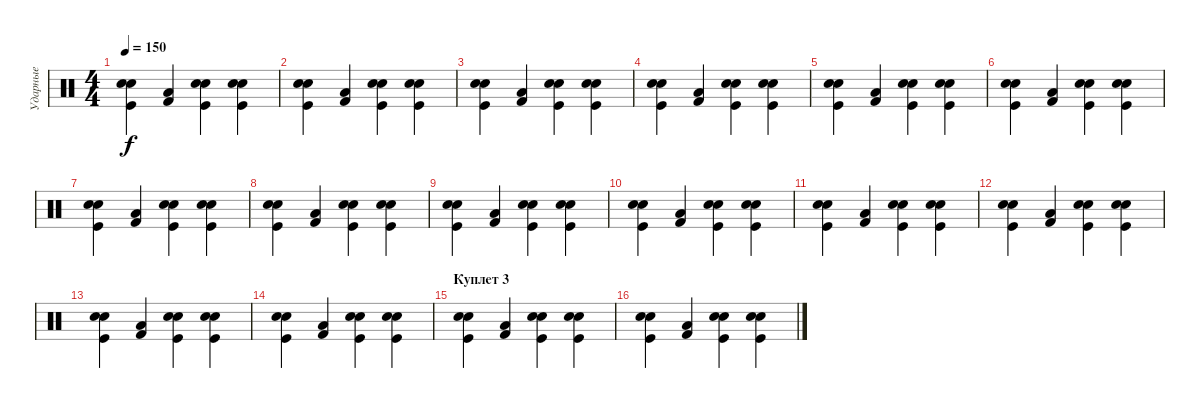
\track ("Ударные" "Ударные") {instrument percussion}
\staff {score}
\articulation defaults
\ts (4 4)
\tempo 150
\clef neutral
\ks c
("Electric Snare (hit)" "Kick (hit)" "Snare (hit) 2").4{dy f} ("Kick (hit) 2" "Low Tom (hit)").4 ("Electric Snare (hit)" "Kick (hit)" "Snare (hit) 2").4 ("Electric Snare (hit)" "Kick (hit)" "Snare (hit) 2").4 |
("Electric Snare (hit)" "Kick (hit)" "Snare (hit) 2").4 ("Kick (hit) 2" "Low Tom (hit)").4 ("Electric Snare (hit)" "Kick (hit)" "Snare (hit) 2").4 ("Electric Snare (hit)" "Kick (hit)" "Snare (hit) 2").4 |
("Electric Snare (hit)" "Kick (hit)" "Snare (hit) 2").4 ("Kick (hit) 2" "Low Tom (hit)").4 ("Electric Snare (hit)" "Kick (hit)" "Snare (hit) 2").4 ("Electric Snare (hit)" "Kick (hit)" "Snare (hit) 2").4 |
("Electric Snare (hit)" "Kick (hit)" "Snare (hit) 2").4 ("Kick (hit) 2" "Low Tom (hit)").4 ("Electric Snare (hit)" "Kick (hit)" "Snare (hit) 2").4 ("Electric Snare (hit)" "Kick (hit)" "Snare (hit) 2").4 |
("Electric Snare (hit)" "Kick (hit)" "Snare (hit) 2").4 ("Kick (hit) 2" "Low Tom (hit)").4 ("Electric Snare (hit)" "Kick (hit)" "Snare (hit) 2").4 ("Electric Snare (hit)" "Kick (hit)" "Snare (hit) 2").4 |
("Electric Snare (hit)" "Kick (hit)" "Snare (hit) 2").4 ("Kick (hit) 2" "Low Tom (hit)").4 ("Electric Snare (hit)" "Kick (hit)" "Snare (hit) 2").4 ("Electric Snare (hit)" "Kick (hit)" "Snare (hit) 2").4 |
("Electric Snare (hit)" "Kick (hit)" "Snare (hit) 2").4 ("Kick (hit) 2" "Low Tom (hit)").4 ("Electric Snare (hit)" "Kick (hit)" "Snare (hit) 2").4 ("Electric Snare (hit)" "Kick (hit)" "Snare (hit) 2").4 |
("Electric Snare (hit)" "Kick (hit)" "Snare (hit) 2").4 ("Kick (hit) 2" "Low Tom (hit)").4 ("Electric Snare (hit)" "Kick (hit)" "Snare (hit) 2").4 ("Electric Snare (hit)" "Kick (hit)" "Snare (hit) 2").4 |
("Electric Snare (hit)" "Kick (hit)" "Snare (hit) 2").4 ("Kick (hit) 2" "Low Tom (hit)").4 ("Electric Snare (hit)" "Kick (hit)" "Snare (hit) 2").4 ("Electric Snare (hit)" "Kick (hit)" "Snare (hit) 2").4 |
("Electric Snare (hit)" "Kick (hit)" "Snare (hit) 2").4 ("Kick (hit) 2" "Low Tom (hit)").4 ("Electric Snare (hit)" "Kick (hit)" "Snare (hit) 2").4 ("Electric Snare (hit)" "Kick (hit)" "Snare (hit) 2").4 |
("Electric Snare (hit)" "Kick (hit)" "Snare (hit) 2").4 ("Kick (hit) 2" "Low Tom (hit)").4 ("Electric Snare (hit)" "Kick (hit)" "Snare (hit) 2").4 ("Electric Snare (hit)" "Kick (hit)" "Snare (hit) 2").4 |
("Electric Snare (hit)" "Kick (hit)" "Snare (hit) 2").4 ("Kick (hit) 2" "Low Tom (hit)").4 ("Electric Snare (hit)" "Kick (hit)" "Snare (hit) 2").4 ("Electric Snare (hit)" "Kick (hit)" "Snare (hit) 2").4 |
("Electric Snare (hit)" "Kick (hit)" "Snare (hit) 2").4 ("Kick (hit) 2" "Low Tom (hit)").4 ("Electric Snare (hit)" "Kick (hit)" "Snare (hit) 2").4 ("Electric Snare (hit)" "Kick (hit)" "Snare (hit) 2").4 |
("Electric Snare (hit)" "Kick (hit)" "Snare (hit) 2").4 ("Kick (hit) 2" "Low Tom (hit)").4 ("Electric Snare (hit)" "Kick (hit)" "Snare (hit) 2").4 ("Electric Snare (hit)" "Kick (hit)" "Snare (hit) 2").4 |
\section ("" "Куплет 3")
("Electric Snare (hit)" "Kick (hit)" "Snare (hit) 2").4 ("Kick (hit) 2" "Low Tom (hit)").4 ("Electric Snare (hit)" "Kick (hit)" "Snare (hit) 2").4 ("Electric Snare (hit)" "Kick (hit)" "Snare (hit) 2").4 |
("Electric Snare (hit)" "Kick (hit)" "Snare (hit) 2").4 ("Kick (hit) 2" "Low Tom (hit)").4 ("Electric Snare (hit)" "Kick (hit)" "Snare (hit) 2").4 ("Electric Snare (hit)" "Kick (hit)" "Snare (hit) 2").4
